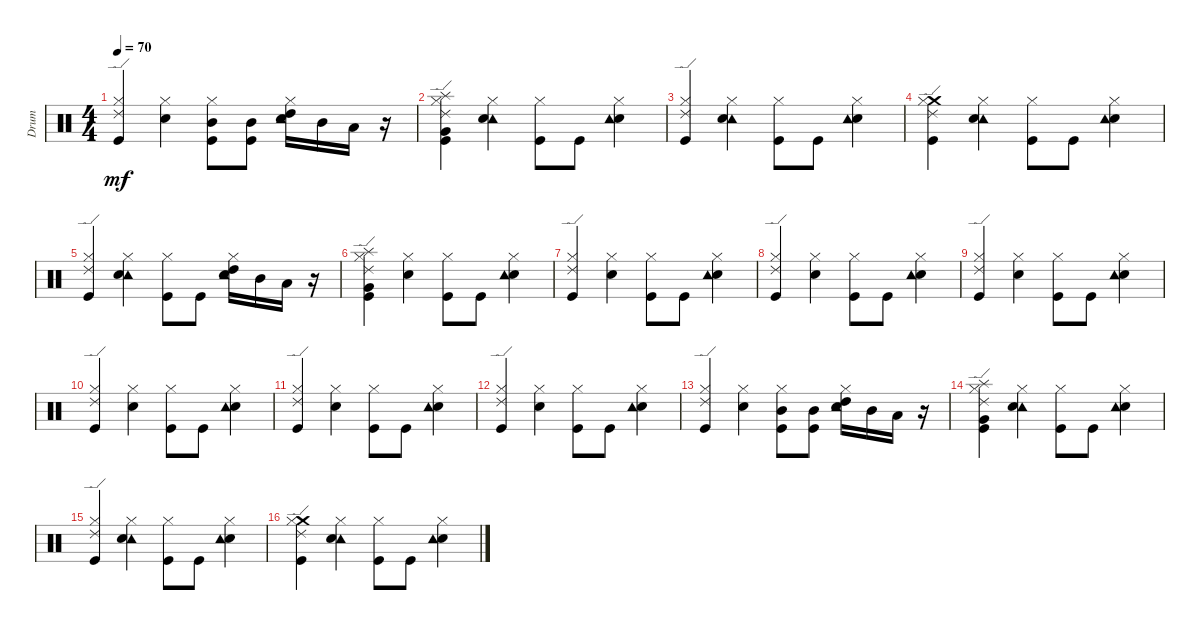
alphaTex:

\track ("Drum" "Drum") {instrument percussion}
\staff {score}
\articulation defaults
\ts (4 4)
\tempo 70
\clef neutral
\ks c
("Ride (edge) 2" "Hi-Hat (closed)" "Kick (hit)").4{dy mf} ("Hi-Hat (closed)" "Electric Snare (hit)").4 ("Mid Tom (hit)" "Hi-Hat (closed)" "Kick (hit)").8 ("Mid Tom (hit)" "Kick (hit)").8 ("Electric Snare (hit)" "High Tom (hit)" "Tambourine (hit)" "Hi-Hat (closed)").16 "Mid Tom (hit)".16 "Low Tom (hit)".16 r.16 |
("Splash (hit)" "Very Low Tom (hit)" "Ride (edge) 2" "Hi-Hat (closed)" "Kick (hit)").4 ("Tambourine (hit)" "Hi-Hat (closed)" "Electric Snare (hit)").4 ("Hi-Hat (closed)" "Kick (hit)").8 "Kick (hit)".8 ("Electric Snare (hit)" "Tambourine (hit)" "Hi-Hat (closed)").4 |
("Ride (edge) 2" "Hi-Hat (closed)" "Kick (hit)").4 ("Tambourine (hit)" "Hi-Hat (closed)" "Electric Snare (hit)").4 ("Hi-Hat (closed)" "Kick (hit)").8 "Kick (hit)".8 ("Electric Snare (hit)" "Tambourine (hit)" "Hi-Hat (closed)").4 |
("Crash medium (hit)" "Ride (edge) 2" "Hi-Hat (closed)" "Kick (hit)").4 ("Tambourine (hit)" "Hi-Hat (closed)" "Electric Snare (hit)").4 ("Hi-Hat (closed)" "Kick (hit)").8 "Kick (hit)".8 ("Electric Snare (hit)" "Tambourine (hit)" "Hi-Hat (closed)").4 |
("Ride (edge) 2" "Hi-Hat (closed)" "Kick (hit)").4 ("Tambourine (hit)" "Hi-Hat (closed)" "Electric Snare (hit)").4 ("Hi-Hat (closed)" "Kick (hit)").8 "Kick (hit)".8 ("Electric Snare (hit)" "High Tom (hit)" "Tambourine (hit)" "Hi-Hat (closed)").16 "Mid Tom (hit)".16 "Low Tom (hit)".16 r.16 |
("Splash (hit)" "Very Low Tom (hit)" "Ride (edge) 2" "Hi-Hat (closed)" "Kick (hit)").4 ("Hi-Hat (closed)" "Electric Snare (hit)").4 ("Hi-Hat (closed)" "Kick (hit)").8 "Kick (hit)".8 ("Electric Snare (hit)" "Tambourine (hit)" "Hi-Hat (closed)").4 |
("Ride (edge) 2" "Hi-Hat (closed)" "Kick (hit)").4 ("Hi-Hat (closed)" "Electric Snare (hit)").4 ("Hi-Hat (closed)" "Kick (hit)").8 "Kick (hit)".8 ("Electric Snare (hit)" "Tambourine (hit)" "Hi-Hat (closed)").4 |
("Ride (edge) 2" "Hi-Hat (closed)" "Kick (hit)").4 ("Hi-Hat (closed)" "Electric Snare (hit)").4 ("Hi-Hat (closed)" "Kick (hit)").8 "Kick (hit)".8 ("Electric Snare (hit)" "Tambourine (hit)" "Hi-Hat (closed)").4 |
("Ride (edge) 2" "Hi-Hat (closed)" "Kick (hit)").4 ("Hi-Hat (closed)" "Electric Snare (hit)").4 ("Hi-Hat (closed)" "Kick (hit)").8 "Kick (hit)".8 ("Electric Snare (hit)" "Tambourine (hit)" "Hi-Hat (closed)").4 |
("Ride (edge) 2" "Hi-Hat (closed)" "Kick (hit)").4 ("Hi-Hat (closed)" "Electric Snare (hit)").4 ("Hi-Hat (closed)" "Kick (hit)").8 "Kick (hit)".8 ("Electric Snare (hit)" "Tambourine (hit)" "Hi-Hat (closed)").4 |
("Ride (edge) 2" "Hi-Hat (closed)" "Kick (hit)").4 ("Hi-Hat (closed)" "Electric Snare (hit)").4 ("Hi-Hat (closed)" "Kick (hit)").8 "Kick (hit)".8 ("Electric Snare (hit)" "Tambourine (hit)" "Hi-Hat (closed)").4 |
("Ride (edge) 2" "Hi-Hat (closed)" "Kick (hit)").4 ("Hi-Hat (closed)" "Electric Snare (hit)").4 ("Hi-Hat (closed)" "Kick (hit)").8 "Kick (hit)".8 ("Electric Snare (hit)" "Tambourine (hit)" "Hi-Hat (closed)").4 |
("Ride (edge) 2" "Hi-Hat (closed)" "Kick (hit)").4 ("Hi-Hat (closed)" "Electric Snare (hit)").4 ("Mid Tom (hit)" "Hi-Hat (closed)" "Kick (hit)").8 ("Mid Tom (hit)" "Kick (hit)").8 ("Electric Snare (hit)" "High Tom (hit)" "Tambourine (hit)" "Hi-Hat (closed)").16 "Mid Tom (hit)".16 "Low Tom (hit)".16 r.16 |
("Splash (hit)" "Very Low Tom (hit)" "Ride (edge) 2" "Hi-Hat (closed)" "Kick (hit)").4 ("Tambourine (hit)" "Hi-Hat (closed)" "Electric Snare (hit)").4 ("Hi-Hat (closed)" "Kick (hit)").8 "Kick (hit)".8 ("Electric Snare (hit)" "Tambourine (hit)" "Hi-Hat (closed)").4 |
("Ride (edge) 2" "Hi-Hat (closed)" "Kick (hit)").4 ("Tambourine (hit)" "Hi-Hat (closed)" "Electric Snare (hit)").4 ("Hi-Hat (closed)" "Kick (hit)").8 "Kick (hit)".8 ("Electric Snare (hit)" "Tambourine (hit)" "Hi-Hat (closed)").4 |
("Crash medium (hit)" "Ride (edge) 2" "Hi-Hat (closed)" "Kick (hit)").4 ("Tambourine (hit)" "Hi-Hat (closed)" "Electric Snare (hit)").4 ("Hi-Hat (closed)" "Kick (hit)").8 "Kick (hit)".8 ("Electric Snare (hit)" "Tambourine (hit)" "Hi-Hat (closed)").4
